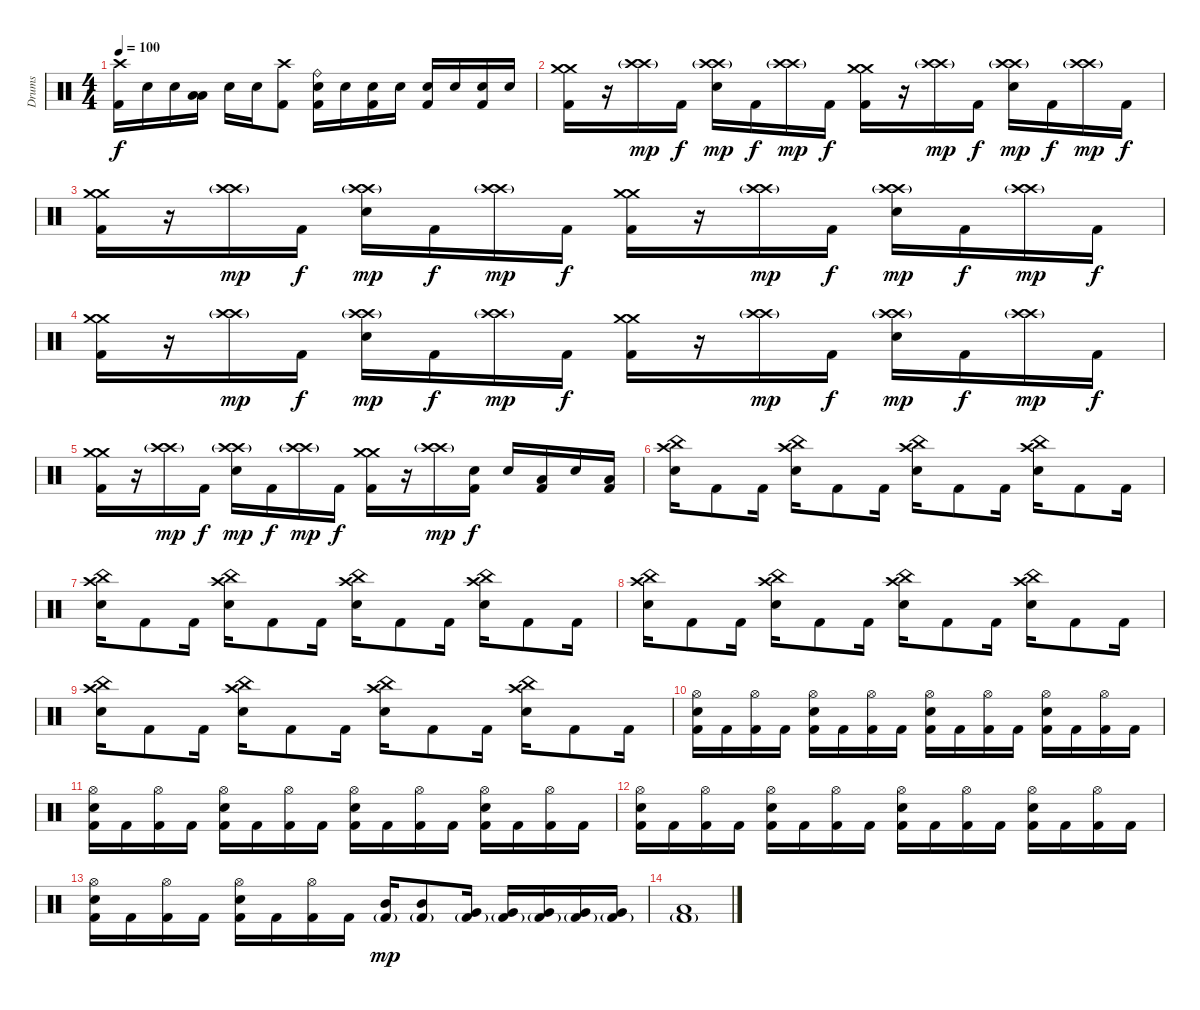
\track ("Drums" "Drums") {instrument percussion}
\staff {score}
\articulation defaults
\ts (4 4)
\tempo 100
\clef neutral
\ks c
("Crash high (hit)" "Kick (hit) 2").16{dy f} "Electric Snare (hit)".16 "Electric Snare (hit)".16 ("Low Tom (hit)" "Low Tom (hit)").16 "Electric Snare (hit)".16 "Electric Snare (hit)".16 ("Crash high (hit)" "Kick (hit) 2").8 ("Ride (bell)" "Electric Snare (hit)" "Kick (hit) 2").16 "Electric Snare (hit)".16 ("Electric Snare (hit)" "Kick (hit) 2").16 "Electric Snare (hit)".16 ("Electric Snare (hit)" "Kick (hit) 2").16 "Electric Snare (hit)".16 ("Electric Snare (hit)" "Kick (hit) 2").16 "Electric Snare (hit)".16 |
("Crash medium (hit)" "Crash medium (hit)" "Kick (hit) 2").16 r.16 ("Crash high (hit)"{g} "Crash high (hit)").16{dy mp} "Kick (hit) 2".16{dy f} ("Crash high (hit)"{g} "Crash high (hit)" "Electric Snare (hit)").16{dy mp} "Kick (hit) 2".16{dy f} ("Crash high (hit)"{g} "Crash high (hit)").16{dy mp} "Kick (hit) 2".16{dy f} ("Crash medium (hit)" "Crash medium (hit)" "Kick (hit) 2").16 r.16 ("Crash high (hit)"{g} "Crash high (hit)").16{dy mp} "Kick (hit) 2".16{dy f} ("Crash high (hit)"{g} "Crash high (hit)" "Electric Snare (hit)").16{dy mp} "Kick (hit) 2".16{dy f} ("Crash high (hit)"{g} "Crash high (hit)").16{dy mp} "Kick (hit) 2".16{dy f} |
("Crash medium (hit)" "Crash medium (hit)" "Kick (hit) 2").16 r.16 ("Crash high (hit)"{g} "Crash high (hit)").16{dy mp} "Kick (hit) 2".16{dy f} ("Crash high (hit)"{g} "Crash high (hit)" "Electric Snare (hit)").16{dy mp} "Kick (hit) 2".16{dy f} ("Crash high (hit)"{g} "Crash high (hit)").16{dy mp} "Kick (hit) 2".16{dy f} ("Crash medium (hit)" "Crash medium (hit)" "Kick (hit) 2").16 r.16 ("Crash high (hit)"{g} "Crash high (hit)").16{dy mp} "Kick (hit) 2".16{dy f} ("Crash high (hit)"{g} "Crash high (hit)" "Electric Snare (hit)").16{dy mp} "Kick (hit) 2".16{dy f} ("Crash high (hit)"{g} "Crash high (hit)").16{dy mp} "Kick (hit) 2".16{dy f} |
("Crash medium (hit)" "Crash medium (hit)" "Kick (hit) 2").16 r.16 ("Crash high (hit)"{g} "Crash high (hit)").16{dy mp} "Kick (hit) 2".16{dy f} ("Crash high (hit)"{g} "Crash high (hit)" "Electric Snare (hit)").16{dy mp} "Kick (hit) 2".16{dy f} ("Crash high (hit)"{g} "Crash high (hit)").16{dy mp} "Kick (hit) 2".16{dy f} ("Crash medium (hit)" "Crash medium (hit)" "Kick (hit) 2").16 r.16 ("Crash high (hit)"{g} "Crash high (hit)").16{dy mp} "Kick (hit) 2".16{dy f} ("Crash high (hit)"{g} "Crash high (hit)" "Electric Snare (hit)").16{dy mp} "Kick (hit) 2".16{dy f} ("Crash high (hit)"{g} "Crash high (hit)").16{dy mp} "Kick (hit) 2".16{dy f} |
("Crash medium (hit)" "Crash medium (hit)" "Kick (hit) 2").16 r.16 ("Crash high (hit)"{g} "Crash high (hit)").16{dy mp} "Kick (hit) 2".16{dy f} ("Crash high (hit)"{g} "Crash high (hit)" "Electric Snare (hit)").16{dy mp} "Kick (hit) 2".16{dy f} ("Crash high (hit)"{g} "Crash high (hit)").16{dy mp} "Kick (hit) 2".16{dy f} ("Crash medium (hit)" "Crash medium (hit)" "Kick (hit) 2").16 r.16 ("Crash high (hit)"{g} "Crash high (hit)").16{dy mp} ("Electric Snare (hit)" "Kick (hit) 2").16{dy f} "Electric Snare (hit)".16 ("Low Tom (hit)" "Kick (hit) 2").16 "Electric Snare (hit)".16 ("Low Floor Tom (hit)" "Kick (hit) 2").16 |
("China (hit)" "Crash high (hit)" "Electric Snare (hit)").16 "Kick (hit) 2".8 "Kick (hit) 2".16 ("China (hit)" "Crash high (hit)" "Electric Snare (hit)").16 "Kick (hit) 2".8 "Kick (hit) 2".16 ("China (hit)" "Crash high (hit)" "Electric Snare (hit)").16 "Kick (hit) 2".8 "Kick (hit) 2".16 ("China (hit)" "Crash high (hit)" "Electric Snare (hit)").16 "Kick (hit) 2".8 "Kick (hit) 2".16 |
("China (hit)" "Crash high (hit)" "Electric Snare (hit)").16 "Kick (hit) 2".8 "Kick (hit) 2".16 ("China (hit)" "Crash high (hit)" "Electric Snare (hit)").16 "Kick (hit) 2".8 "Kick (hit) 2".16 ("China (hit)" "Crash high (hit)" "Electric Snare (hit)").16 "Kick (hit) 2".8 "Kick (hit) 2".16 ("China (hit)" "Crash high (hit)" "Electric Snare (hit)").16 "Kick (hit) 2".8 "Kick (hit) 2".16 |
("China (hit)" "Crash high (hit)" "Electric Snare (hit)").16 "Kick (hit) 2".8 "Kick (hit) 2".16 ("China (hit)" "Crash high (hit)" "Electric Snare (hit)").16 "Kick (hit) 2".8 "Kick (hit) 2".16 ("China (hit)" "Crash high (hit)" "Electric Snare (hit)").16 "Kick (hit) 2".8 "Kick (hit) 2".16 ("China (hit)" "Crash high (hit)" "Electric Snare (hit)").16 "Kick (hit) 2".8 "Kick (hit) 2".16 |
("China (hit)" "Crash high (hit)" "Electric Snare (hit)").16 "Kick (hit) 2".8 "Kick (hit) 2".16 ("China (hit)" "Crash high (hit)" "Electric Snare (hit)").16 "Kick (hit) 2".8 "Kick (hit) 2".16 ("China (hit)" "Crash high (hit)" "Electric Snare (hit)").16 "Kick (hit) 2".8 "Kick (hit) 2".16 ("China (hit)" "Crash high (hit)" "Electric Snare (hit)").16 "Kick (hit) 2".8 "Kick (hit) 2".16 |
("Hi-Hat (open)" "Electric Snare (hit)" "Kick (hit) 2").16 "Kick (hit) 2".16 ("Hi-Hat (open)" "Kick (hit) 2").16 "Kick (hit) 2".16 ("Hi-Hat (open)" "Electric Snare (hit)" "Kick (hit) 2").16 "Kick (hit) 2".16 ("Hi-Hat (open)" "Kick (hit) 2").16 "Kick (hit) 2".16 ("Hi-Hat (open)" "Electric Snare (hit)" "Kick (hit) 2").16 "Kick (hit) 2".16 ("Hi-Hat (open)" "Kick (hit) 2").16 "Kick (hit) 2".16 ("Hi-Hat (open)" "Electric Snare (hit)" "Kick (hit) 2").16 "Kick (hit) 2".16 ("Hi-Hat (open)" "Kick (hit) 2").16 "Kick (hit) 2".16 |
("Hi-Hat (open)" "Electric Snare (hit)" "Kick (hit) 2").16 "Kick (hit) 2".16 ("Hi-Hat (open)" "Kick (hit) 2").16 "Kick (hit) 2".16 ("Hi-Hat (open)" "Electric Snare (hit)" "Kick (hit) 2").16 "Kick (hit) 2".16 ("Hi-Hat (open)" "Kick (hit) 2").16 "Kick (hit) 2".16 ("Hi-Hat (open)" "Electric Snare (hit)" "Kick (hit) 2").16 "Kick (hit) 2".16 ("Hi-Hat (open)" "Kick (hit) 2").16 "Kick (hit) 2".16 ("Hi-Hat (open)" "Electric Snare (hit)" "Kick (hit) 2").16 "Kick (hit) 2".16 ("Hi-Hat (open)" "Kick (hit) 2").16 "Kick (hit) 2".16 |
("Hi-Hat (open)" "Electric Snare (hit)" "Kick (hit) 2").16 "Kick (hit) 2".16 ("Hi-Hat (open)" "Kick (hit) 2").16 "Kick (hit) 2".16 ("Hi-Hat (open)" "Electric Snare (hit)" "Kick (hit) 2").16 "Kick (hit) 2".16 ("Hi-Hat (open)" "Kick (hit) 2").16 "Kick (hit) 2".16 ("Hi-Hat (open)" "Electric Snare (hit)" "Kick (hit) 2").16 "Kick (hit) 2".16 ("Hi-Hat (open)" "Kick (hit) 2").16 "Kick (hit) 2".16 ("Hi-Hat (open)" "Electric Snare (hit)" "Kick (hit) 2").16 "Kick (hit) 2".16 ("Hi-Hat (open)" "Kick (hit) 2").16 "Kick (hit) 2".16 |
("Hi-Hat (open)" "Electric Snare (hit)" "Kick (hit) 2").16 "Kick (hit) 2".16 ("Hi-Hat (open)" "Kick (hit) 2").16 "Kick (hit) 2".16 ("Hi-Hat (open)" "Electric Snare (hit)" "Kick (hit) 2").16 "Kick (hit) 2".16 ("Hi-Hat (open)" "Kick (hit) 2").16 "Kick (hit) 2".16 ("Mid Tom (hit)" "Kick (hit) 2"{g}).16{dy mp} ("Mid Tom (hit)" "Kick (hit) 2"{g}).8 ("Very Low Tom (hit)" "Kick (hit) 2"{g}).16 ("Very Low Tom (hit)" "Kick (hit) 2"{g}).16 ("Very Low Tom (hit)" "Kick (hit) 2"{g}).16 ("Very Low Tom (hit)" "Kick (hit) 2"{g}).16 ("Very Low Tom (hit)" "Kick (hit) 2"{g}).16 |
("Low Floor Tom (hit)" "Kick (hit) 2"{g}).1
